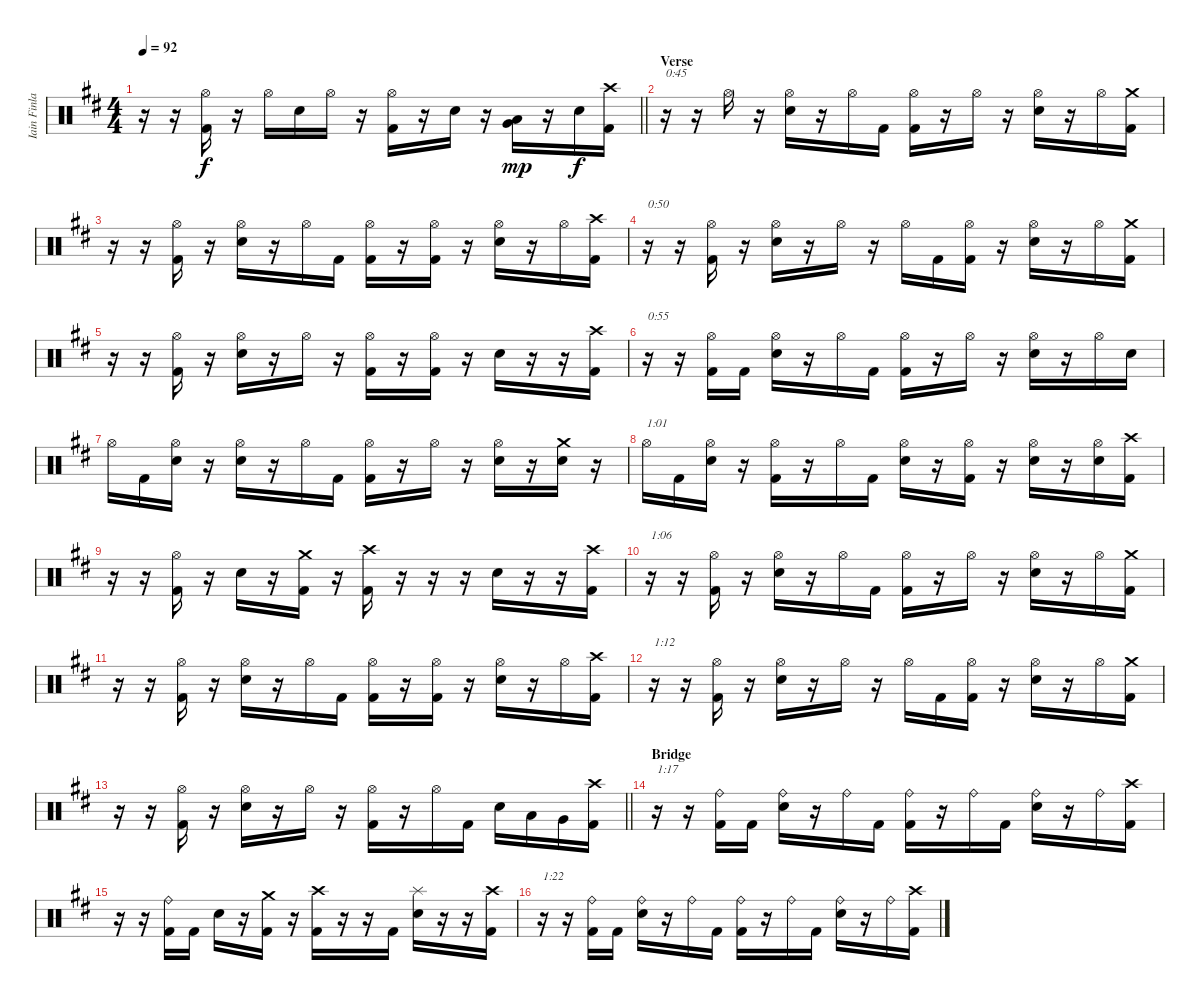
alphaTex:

\track ("Iain Finlay" "Iain Finla") {instrument percussion}
\staff {score}
\articulation defaults
\ts (4 4)
\tempo 92
\clef neutral
\barLineRight lightlight
\ks bminor
r.16{dy f} r.16 ("Hi-Hat (open)" "Kick (hit) 2").16 r.16 "Hi-Hat (open)".16 "Electric Snare (hit)".16 "Hi-Hat (open)".16 r.16 ("Hi-Hat (open)" "Kick (hit) 2").16 r.16 "Electric Snare (hit)".16 r.16 ("Low Floor Tom (hit)" "Very Low Tom (hit)").16{dy mp} r.16 "Electric Snare (hit)".16{dy f} ("Crash high (hit)" "Kick (hit) 2").16 |
\section ("" "Verse")
r.16{txt "0:45"} r.16 "Hi-Hat (open)".16 r.16 ("Hi-Hat (open)" "Electric Snare (hit)").16 r.16 "Hi-Hat (open)".16 "Kick (hit) 2".16 ("Hi-Hat (open)" "Kick (hit) 2").16 r.16 "Hi-Hat (open)".16 r.16 ("Hi-Hat (open)" "Electric Snare (hit)").16 r.16 "Hi-Hat (open)".16 ("Crash medium (hit)" "Kick (hit) 2").16 |
r.16 r.16 ("Hi-Hat (open)" "Kick (hit) 2").16 r.16 ("Hi-Hat (open)" "Electric Snare (hit)").16 r.16 "Hi-Hat (open)".16 "Kick (hit) 2".16 ("Hi-Hat (open)" "Kick (hit) 2").16 r.16 ("Hi-Hat (open)" "Kick (hit) 2").16 r.16 ("Hi-Hat (open)" "Electric Snare (hit)").16 r.16 "Hi-Hat (open)".16 ("Crash high (hit)" "Kick (hit) 2").16 |
r.16{txt "0:50"} r.16 ("Hi-Hat (open)" "Kick (hit) 2").16 r.16 ("Hi-Hat (open)" "Electric Snare (hit)").16 r.16 "Hi-Hat (open)".16 r.16 "Hi-Hat (open)".16 "Kick (hit) 2".16 ("Hi-Hat (open)" "Kick (hit) 2").16 r.16 ("Hi-Hat (open)" "Electric Snare (hit)").16 r.16 "Hi-Hat (open)".16 ("Crash medium (hit)" "Kick (hit) 2").16 |
r.16 r.16 ("Hi-Hat (open)" "Kick (hit) 2").16 r.16 ("Hi-Hat (open)" "Electric Snare (hit)").16 r.16 "Hi-Hat (open)".16 r.16 ("Hi-Hat (open)" "Kick (hit) 2").16 r.16 ("Hi-Hat (open)" "Kick (hit) 2").16 r.16 "Electric Snare (hit)".16 r.16 r.16 ("Crash high (hit)" "Kick (hit) 2").16 |
r.16{txt "0:55"} r.16 ("Hi-Hat (open)" "Kick (hit) 2").16 "Kick (hit) 2".16 ("Hi-Hat (open)" "Electric Snare (hit)").16 r.16 "Hi-Hat (open)".16 "Kick (hit) 2".16 ("Hi-Hat (open)" "Kick (hit) 2").16 r.16 "Hi-Hat (open)".16 r.16 ("Hi-Hat (open)" "Electric Snare (hit)").16 r.16 "Hi-Hat (open)".16 "Electric Snare (hit)".16 |
"Hi-Hat (open)".16 "Kick (hit) 2".16 ("Hi-Hat (open)" "Electric Snare (hit)").16 r.16 ("Hi-Hat (open)" "Electric Snare (hit)").16 r.16 "Hi-Hat (open)".16 "Kick (hit) 2".16 ("Hi-Hat (open)" "Kick (hit) 2").16 r.16 "Hi-Hat (open)".16 r.16 ("Hi-Hat (open)" "Electric Snare (hit)").16 r.16 ("Crash medium (hit)" "Electric Snare (hit)").16 r.16 |
"Hi-Hat (open)".16{txt "1:01"} "Kick (hit) 2".16 ("Hi-Hat (open)" "Electric Snare (hit)").16 r.16 ("Hi-Hat (open)" "Kick (hit) 2").16 r.16 "Hi-Hat (open)".16 "Kick (hit) 2".16 ("Hi-Hat (open)" "Electric Snare (hit)").16 r.16 ("Hi-Hat (open)" "Kick (hit) 2").16 r.16 ("Hi-Hat (open)" "Electric Snare (hit)").16 r.16 ("Hi-Hat (open)" "Electric Snare (hit)").16 ("Crash high (hit)" "Kick (hit) 2").16 |
r.16 r.16 ("Hi-Hat (open)" "Kick (hit) 2").16 r.16 "Electric Snare (hit)".16 r.16 ("Crash medium (hit)" "Kick (hit) 2").16 r.16 ("Crash high (hit)" "Kick (hit) 2").16 r.16 r.16 r.16 "Electric Snare (hit)".16 r.16 r.16 ("Crash high (hit)" "Kick (hit) 2").16 |
r.16{txt "1:06"} r.16 ("Hi-Hat (open)" "Kick (hit) 2").16 r.16 ("Hi-Hat (open)" "Electric Snare (hit)").16 r.16 "Hi-Hat (open)".16 "Kick (hit) 2".16 ("Hi-Hat (open)" "Kick (hit) 2").16 r.16 "Hi-Hat (open)".16 r.16 ("Hi-Hat (open)" "Electric Snare (hit)").16 r.16 "Hi-Hat (open)".16 ("Crash medium (hit)" "Kick (hit) 2").16 |
r.16 r.16 ("Hi-Hat (open)" "Kick (hit) 2").16 r.16 ("Hi-Hat (open)" "Electric Snare (hit)").16 r.16 "Hi-Hat (open)".16 "Kick (hit) 2".16 ("Hi-Hat (open)" "Kick (hit) 2").16 r.16 ("Hi-Hat (open)" "Kick (hit) 2").16 r.16 ("Hi-Hat (open)" "Electric Snare (hit)").16 r.16 "Hi-Hat (open)".16 ("Crash high (hit)" "Kick (hit) 2").16 |
r.16{txt "1:12"} r.16 ("Hi-Hat (open)" "Kick (hit) 2").16 r.16 ("Hi-Hat (open)" "Electric Snare (hit)").16 r.16 "Hi-Hat (open)".16 r.16 "Hi-Hat (open)".16 "Kick (hit) 2".16 ("Hi-Hat (open)" "Kick (hit) 2").16 r.16 ("Hi-Hat (open)" "Electric Snare (hit)").16 r.16 "Hi-Hat (open)".16 ("Crash medium (hit)" "Kick (hit) 2").16 |
\barLineRight lightlight
r.16 r.16 ("Hi-Hat (open)" "Kick (hit) 2").16 r.16 ("Hi-Hat (open)" "Electric Snare (hit)").16 r.16 "Hi-Hat (open)".16 r.16 ("Hi-Hat (open)" "Kick (hit) 2").16 r.16 "Hi-Hat (open)".16 "Kick (hit) 2".16 "Electric Snare (hit)".16 "Low Tom (hit)".16 "Very Low Tom (hit)".16 ("Crash high (hit)" "Kick (hit) 2").16 |
\section ("" "Bridge")
r.16{txt "1:17"} r.16 ("Ride (bell)" "Kick (hit) 2").16 "Kick (hit) 2".16 ("Ride (bell)" "Electric Snare (hit)").16 r.16 "Ride (bell)".16 "Kick (hit) 2".16 ("Ride (bell)" "Kick (hit) 2").16 r.16 "Ride (bell)".16 "Kick (hit) 2".16 ("Ride (bell)" "Electric Snare (hit)").16 r.16 "Ride (bell)".16 ("Crash high (hit)" "Kick (hit) 2").16 |
r.16 r.16 ("Ride (bell)" "Kick (hit) 2").16 "Kick (hit) 2".16 "Electric Snare (hit)".16 r.16 ("Crash medium (hit)" "Kick (hit) 2").16 r.16 ("Crash high (hit)" "Kick (hit) 2").16 r.16 r.16 "Kick (hit) 2".16 ("Splash (hit)" "Electric Snare (hit)").16 r.16 r.16 ("Crash high (hit)" "Kick (hit) 2").16 |
r.16{txt "1:22"} r.16 ("Ride (bell)" "Kick (hit) 2").16 "Kick (hit) 2".16 ("Ride (bell)" "Electric Snare (hit)").16 r.16 "Ride (bell)".16 "Kick (hit) 2".16 ("Ride (bell)" "Kick (hit) 2").16 r.16 "Ride (bell)".16 "Kick (hit) 2".16 ("Ride (bell)" "Electric Snare (hit)").16 r.16 "Ride (bell)".16 ("Crash high (hit)" "Kick (hit) 2").16
